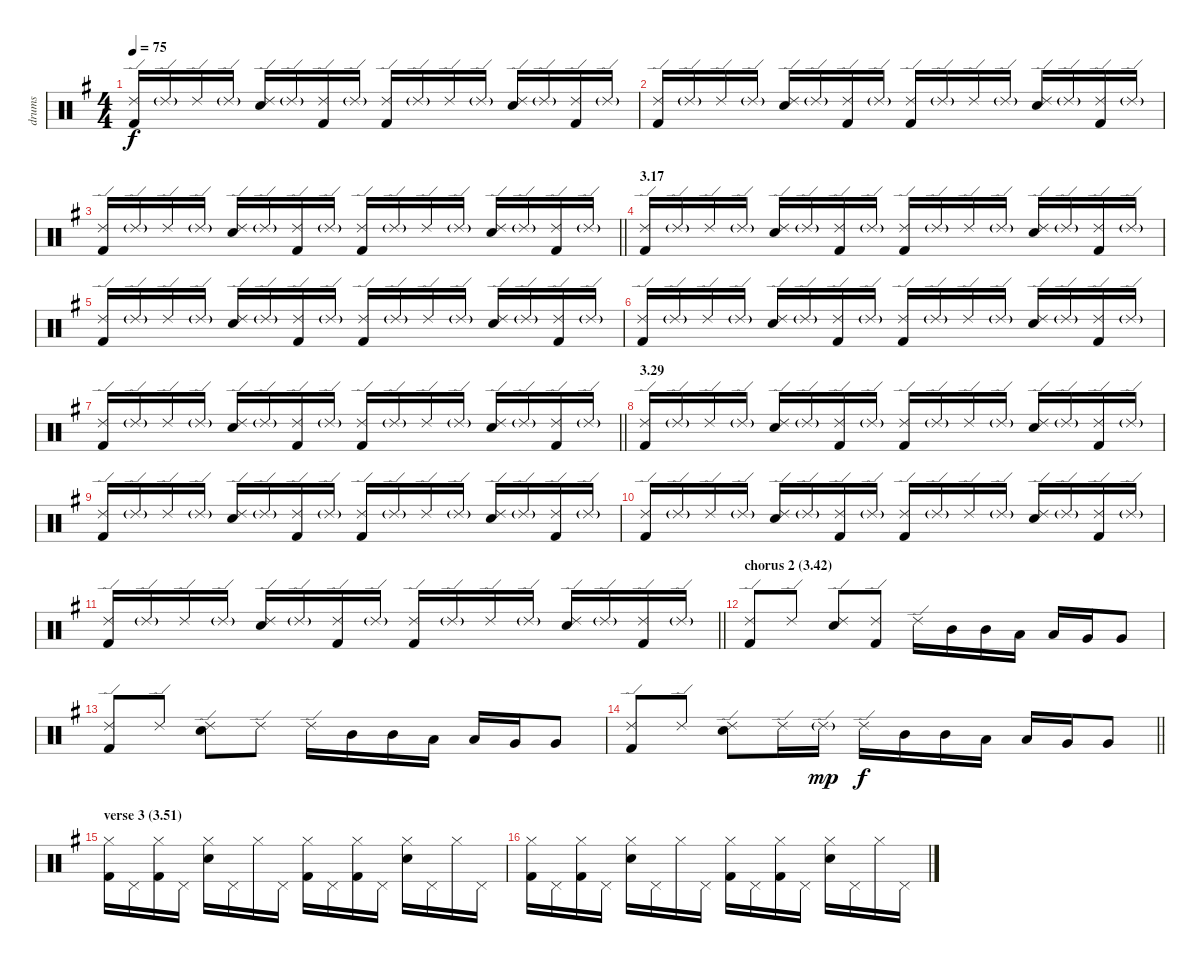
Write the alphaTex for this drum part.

\track ("drums" "drums") {instrument percussion}
\staff {score}
\articulation defaults
\ts (4 4)
\tempo 75
\clef neutral
\ks g
("Ride (edge) 2" "Kick (hit) 2").16{dy f} "Ride (edge) 2"{g}.16 "Ride (edge) 2".16 "Ride (edge) 2"{g}.16 ("Ride (edge) 2" "Electric Snare (hit)").16 "Ride (edge) 2"{g}.16 ("Ride (edge) 2" "Kick (hit) 2").16 "Ride (edge) 2"{g}.16 ("Ride (edge) 2" "Kick (hit) 2").16 "Ride (edge) 2"{g}.16 "Ride (edge) 2".16 "Ride (edge) 2"{g}.16 ("Ride (edge) 2" "Electric Snare (hit)").16 "Ride (edge) 2"{g}.16 ("Ride (edge) 2" "Kick (hit) 2").16 "Ride (edge) 2"{g}.16 |
("Ride (edge) 2" "Kick (hit) 2").16 "Ride (edge) 2"{g}.16 "Ride (edge) 2".16 "Ride (edge) 2"{g}.16 ("Ride (edge) 2" "Electric Snare (hit)").16 "Ride (edge) 2"{g}.16 ("Ride (edge) 2" "Kick (hit) 2").16 "Ride (edge) 2"{g}.16 ("Ride (edge) 2" "Kick (hit) 2").16 "Ride (edge) 2"{g}.16 "Ride (edge) 2".16 "Ride (edge) 2"{g}.16 ("Ride (edge) 2" "Electric Snare (hit)").16 "Ride (edge) 2"{g}.16 ("Ride (edge) 2" "Kick (hit) 2").16 "Ride (edge) 2"{g}.16 |
\barLineRight lightlight
("Ride (edge) 2" "Kick (hit) 2").16 "Ride (edge) 2"{g}.16 "Ride (edge) 2".16 "Ride (edge) 2"{g}.16 ("Ride (edge) 2" "Electric Snare (hit)").16 "Ride (edge) 2"{g}.16 ("Ride (edge) 2" "Kick (hit) 2").16 "Ride (edge) 2"{g}.16 ("Ride (edge) 2" "Kick (hit) 2").16 "Ride (edge) 2"{g}.16 "Ride (edge) 2".16 "Ride (edge) 2"{g}.16 ("Ride (edge) 2" "Electric Snare (hit)").16 "Ride (edge) 2"{g}.16 ("Ride (edge) 2" "Kick (hit) 2").16 "Ride (edge) 2"{g}.16 |
\section ("" "3.17")
("Ride (edge) 2" "Kick (hit) 2").16 "Ride (edge) 2"{g}.16 "Ride (edge) 2".16 "Ride (edge) 2"{g}.16 ("Ride (edge) 2" "Electric Snare (hit)").16 "Ride (edge) 2"{g}.16 ("Ride (edge) 2" "Kick (hit) 2").16 "Ride (edge) 2"{g}.16 ("Ride (edge) 2" "Kick (hit) 2").16 "Ride (edge) 2"{g}.16 "Ride (edge) 2".16 "Ride (edge) 2"{g}.16 ("Ride (edge) 2" "Electric Snare (hit)").16 "Ride (edge) 2"{g}.16 ("Ride (edge) 2" "Kick (hit) 2").16 "Ride (edge) 2"{g}.16 |
("Ride (edge) 2" "Kick (hit) 2").16 "Ride (edge) 2"{g}.16 "Ride (edge) 2".16 "Ride (edge) 2"{g}.16 ("Ride (edge) 2" "Electric Snare (hit)").16 "Ride (edge) 2"{g}.16 ("Ride (edge) 2" "Kick (hit) 2").16 "Ride (edge) 2"{g}.16 ("Ride (edge) 2" "Kick (hit) 2").16 "Ride (edge) 2"{g}.16 "Ride (edge) 2".16 "Ride (edge) 2"{g}.16 ("Ride (edge) 2" "Electric Snare (hit)").16 "Ride (edge) 2"{g}.16 ("Ride (edge) 2" "Kick (hit) 2").16 "Ride (edge) 2"{g}.16 |
("Ride (edge) 2" "Kick (hit) 2").16 "Ride (edge) 2"{g}.16 "Ride (edge) 2".16 "Ride (edge) 2"{g}.16 ("Ride (edge) 2" "Electric Snare (hit)").16 "Ride (edge) 2"{g}.16 ("Ride (edge) 2" "Kick (hit) 2").16 "Ride (edge) 2"{g}.16 ("Ride (edge) 2" "Kick (hit) 2").16 "Ride (edge) 2"{g}.16 "Ride (edge) 2".16 "Ride (edge) 2"{g}.16 ("Ride (edge) 2" "Electric Snare (hit)").16 "Ride (edge) 2"{g}.16 ("Ride (edge) 2" "Kick (hit) 2").16 "Ride (edge) 2"{g}.16 |
\barLineRight lightlight
("Ride (edge) 2" "Kick (hit) 2").16 "Ride (edge) 2"{g}.16 "Ride (edge) 2".16 "Ride (edge) 2"{g}.16 ("Ride (edge) 2" "Electric Snare (hit)").16 "Ride (edge) 2"{g}.16 ("Ride (edge) 2" "Kick (hit) 2").16 "Ride (edge) 2"{g}.16 ("Ride (edge) 2" "Kick (hit) 2").16 "Ride (edge) 2"{g}.16 "Ride (edge) 2".16 "Ride (edge) 2"{g}.16 ("Ride (edge) 2" "Electric Snare (hit)").16 "Ride (edge) 2"{g}.16 ("Ride (edge) 2" "Kick (hit) 2").16 "Ride (edge) 2"{g}.16 |
\section ("" "3.29")
("Ride (edge) 2" "Kick (hit) 2").16 "Ride (edge) 2"{g}.16 "Ride (edge) 2".16 "Ride (edge) 2"{g}.16 ("Ride (edge) 2" "Electric Snare (hit)").16 "Ride (edge) 2"{g}.16 ("Ride (edge) 2" "Kick (hit) 2").16 "Ride (edge) 2"{g}.16 ("Ride (edge) 2" "Kick (hit) 2").16 "Ride (edge) 2"{g}.16 "Ride (edge) 2".16 "Ride (edge) 2"{g}.16 ("Ride (edge) 2" "Electric Snare (hit)").16 "Ride (edge) 2"{g}.16 ("Ride (edge) 2" "Kick (hit) 2").16 "Ride (edge) 2"{g}.16 |
("Ride (edge) 2" "Kick (hit) 2").16 "Ride (edge) 2"{g}.16 "Ride (edge) 2".16 "Ride (edge) 2"{g}.16 ("Ride (edge) 2" "Electric Snare (hit)").16 "Ride (edge) 2"{g}.16 ("Ride (edge) 2" "Kick (hit) 2").16 "Ride (edge) 2"{g}.16 ("Ride (edge) 2" "Kick (hit) 2").16 "Ride (edge) 2"{g}.16 "Ride (edge) 2".16 "Ride (edge) 2"{g}.16 ("Ride (edge) 2" "Electric Snare (hit)").16 "Ride (edge) 2"{g}.16 ("Ride (edge) 2" "Kick (hit) 2").16 "Ride (edge) 2"{g}.16 |
("Ride (edge) 2" "Kick (hit) 2").16 "Ride (edge) 2"{g}.16 "Ride (edge) 2".16 "Ride (edge) 2"{g}.16 ("Ride (edge) 2" "Electric Snare (hit)").16 "Ride (edge) 2"{g}.16 ("Ride (edge) 2" "Kick (hit) 2").16 "Ride (edge) 2"{g}.16 ("Ride (edge) 2" "Kick (hit) 2").16 "Ride (edge) 2"{g}.16 "Ride (edge) 2".16 "Ride (edge) 2"{g}.16 ("Ride (edge) 2" "Electric Snare (hit)").16 "Ride (edge) 2"{g}.16 ("Ride (edge) 2" "Kick (hit) 2").16 "Ride (edge) 2"{g}.16 |
\barLineRight lightlight
("Ride (edge) 2" "Kick (hit) 2").16 "Ride (edge) 2"{g}.16 "Ride (edge) 2".16 "Ride (edge) 2"{g}.16 ("Ride (edge) 2" "Electric Snare (hit)").16 "Ride (edge) 2"{g}.16 ("Ride (edge) 2" "Kick (hit) 2").16 "Ride (edge) 2"{g}.16 ("Ride (edge) 2" "Kick (hit) 2").16 "Ride (edge) 2"{g}.16 "Ride (edge) 2".16 "Ride (edge) 2"{g}.16 ("Ride (edge) 2" "Electric Snare (hit)").16 "Ride (edge) 2"{g}.16 ("Ride (edge) 2" "Kick (hit) 2").16 "Ride (edge) 2"{g}.16 |
\section ("" "chorus 2 (3.42)")
("Ride (edge) 2" "Kick (hit) 2").8 "Ride (edge) 2".8 ("Ride (edge) 2" "Electric Snare (hit)").8 ("Ride (edge) 2" "Kick (hit) 2").8 "Ride (edge) 2".16 "Mid Tom (hit)".16 "Mid Tom (hit)".16 "Low Tom (hit)".16 "Low Tom (hit)".16 "Very Low Tom (hit)".16 "Very Low Tom (hit)".8 |
("Ride (edge) 2" "Kick (hit) 2").8 "Ride (edge) 2".8 ("Ride (edge) 2" "Electric Snare (hit)").8 "Ride (edge) 2".8 "Ride (edge) 2".16 "Mid Tom (hit)".16 "Mid Tom (hit)".16 "Low Tom (hit)".16 "Low Tom (hit)".16 "Very Low Tom (hit)".16 "Very Low Tom (hit)".8 |
\barLineRight lightlight
("Ride (edge) 2" "Kick (hit) 2").8 "Ride (edge) 2".8 ("Ride (edge) 2" "Electric Snare (hit)").8 "Ride (edge) 2".16 "Ride (edge) 2"{g}.16{dy mp} "Ride (edge) 2".16{dy f} "Mid Tom (hit)".16 "Mid Tom (hit)".16 "Low Tom (hit)".16 "Low Tom (hit)".16 "Very Low Tom (hit)".16 "Very Low Tom (hit)".8 |
\section ("" "verse 3 (3.51)")
("Hi-Hat (closed)" "Kick (hit) 2").16 "Pedal Hi-Hat (hit)".16 ("Hi-Hat (closed)" "Kick (hit) 2").16 "Pedal Hi-Hat (hit)".16 ("Hi-Hat (closed)" "Electric Snare (hit)").16 "Pedal Hi-Hat (hit)".16 "Hi-Hat (closed)".16 "Pedal Hi-Hat (hit)".16 ("Hi-Hat (closed)" "Kick (hit) 2").16 "Pedal Hi-Hat (hit)".16 ("Hi-Hat (closed)" "Kick (hit) 2").16 "Pedal Hi-Hat (hit)".16 ("Hi-Hat (closed)" "Electric Snare (hit)").16 "Pedal Hi-Hat (hit)".16 "Hi-Hat (closed)".16 "Pedal Hi-Hat (hit)".16 |
("Hi-Hat (closed)" "Kick (hit) 2").16 "Pedal Hi-Hat (hit)".16 ("Hi-Hat (closed)" "Kick (hit) 2").16 "Pedal Hi-Hat (hit)".16 ("Hi-Hat (closed)" "Electric Snare (hit)").16 "Pedal Hi-Hat (hit)".16 "Hi-Hat (closed)".16 "Pedal Hi-Hat (hit)".16 ("Hi-Hat (closed)" "Kick (hit) 2").16 "Pedal Hi-Hat (hit)".16 ("Hi-Hat (closed)" "Kick (hit) 2").16 "Pedal Hi-Hat (hit)".16 ("Hi-Hat (closed)" "Electric Snare (hit)").16 "Pedal Hi-Hat (hit)".16 "Hi-Hat (closed)".16 "Pedal Hi-Hat (hit)".16
